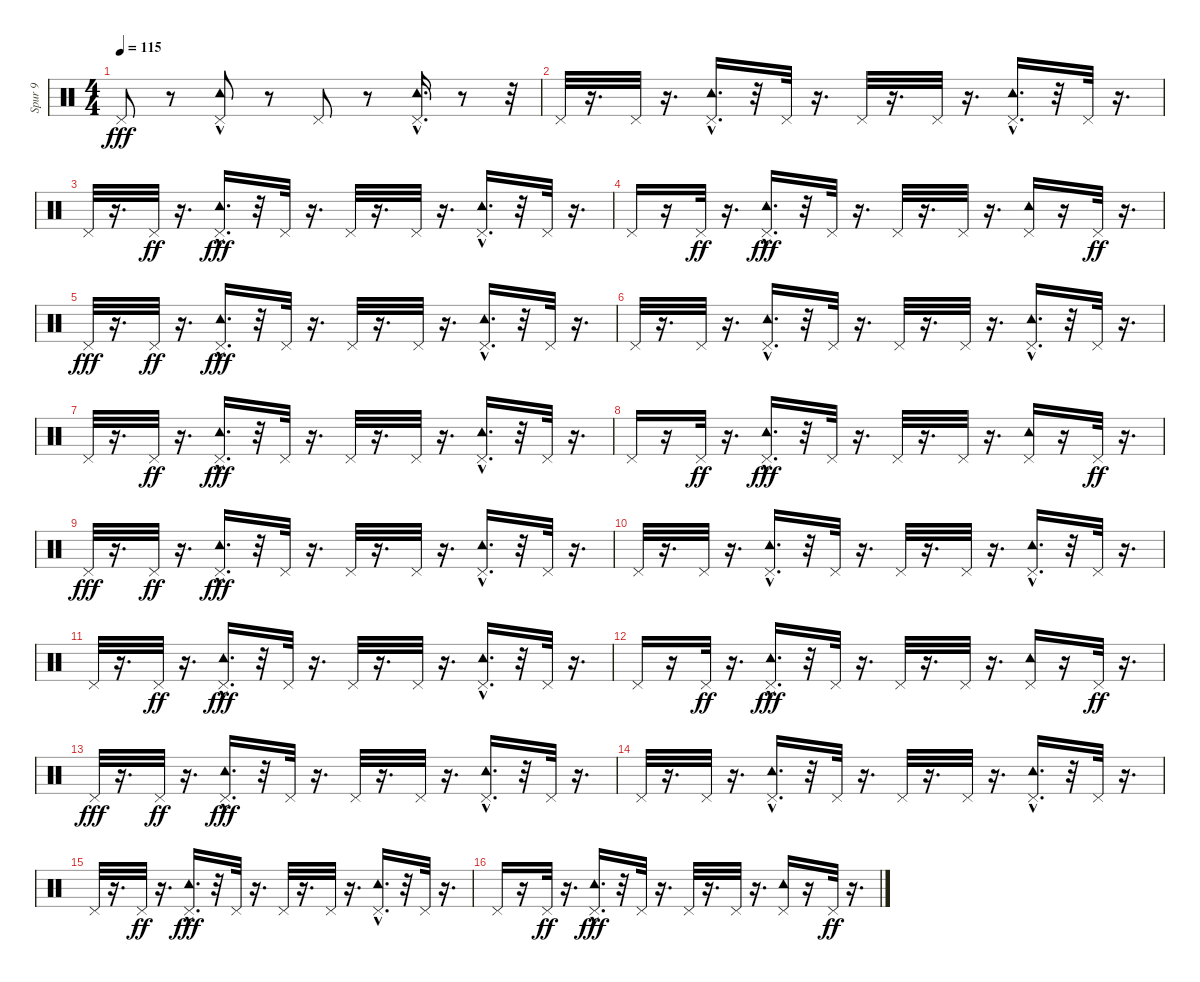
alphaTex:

\track ("Spur 9" "Spur 9") {instrument percussion}
\staff {score}
\articulation defaults
\ts (4 4)
\tempo 115
\clef neutral
\ks c "Pedal Hi-Hat (hit)".8{dy fff}
r.8 ("Pedal Hi-Hat (hit)" "Tambourine (hit)"{hac}).8 r.8 "Pedal Hi-Hat (hit)".8 r.8 ("Pedal Hi-Hat (hit)" "Tambourine (hit)"{hac}).16{d} r.8 r.32 |
"Pedal Hi-Hat (hit)".32 r.16{d} "Pedal Hi-Hat (hit)".32 r.16{d} ("Pedal Hi-Hat (hit)" "Tambourine (hit)"{hac}).16{d} r.32 "Pedal Hi-Hat (hit)".32 r.16{d} "Pedal Hi-Hat (hit)".32 r.16{d} "Pedal Hi-Hat (hit)".32 r.16{d} ("Pedal Hi-Hat (hit)" "Tambourine (hit)"{hac}).16{d} r.32 "Pedal Hi-Hat (hit)".32 r.16{d} |
"Pedal Hi-Hat (hit)".32 r.16{d} "Pedal Hi-Hat (hit)".32{dy ff} r.16{d} ("Tambourine (hit)"{hac} "Pedal Hi-Hat (hit)").16{d dy fff} r.32 "Pedal Hi-Hat (hit)".32 r.16{d} "Pedal Hi-Hat (hit)".32 r.16{d} "Pedal Hi-Hat (hit)".32 r.16{d} ("Pedal Hi-Hat (hit)" "Tambourine (hit)"{hac}).16{d} r.32 "Pedal Hi-Hat (hit)".32 r.16{d} |
"Pedal Hi-Hat (hit)".16 r.16 "Pedal Hi-Hat (hit)".32{dy ff} r.16{d} ("Tambourine (hit)"{hac} "Pedal Hi-Hat (hit)").16{d dy fff} r.32 "Pedal Hi-Hat (hit)".32 r.16{d} "Pedal Hi-Hat (hit)".32 r.16{d} "Pedal Hi-Hat (hit)".32 r.16{d} ("Pedal Hi-Hat (hit)" "Tambourine (hit)").16 r.16 "Pedal Hi-Hat (hit)".32{dy ff} r.16{d} |
"Pedal Hi-Hat (hit)".32{dy fff} r.16{d} "Pedal Hi-Hat (hit)".32{dy ff} r.16{d} ("Tambourine (hit)"{hac} "Pedal Hi-Hat (hit)").16{d dy fff} r.32 "Pedal Hi-Hat (hit)".32 r.16{d} "Pedal Hi-Hat (hit)".32 r.16{d} "Pedal Hi-Hat (hit)".32 r.16{d} ("Pedal Hi-Hat (hit)" "Tambourine (hit)"{hac}).16{d} r.32 "Pedal Hi-Hat (hit)".32 r.16{d} |
"Pedal Hi-Hat (hit)".32 r.16{d} "Pedal Hi-Hat (hit)".32 r.16{d} ("Pedal Hi-Hat (hit)" "Tambourine (hit)"{hac}).16{d} r.32 "Pedal Hi-Hat (hit)".32 r.16{d} "Pedal Hi-Hat (hit)".32 r.16{d} "Pedal Hi-Hat (hit)".32 r.16{d} ("Pedal Hi-Hat (hit)" "Tambourine (hit)"{hac}).16{d} r.32 "Pedal Hi-Hat (hit)".32 r.16{d} |
"Pedal Hi-Hat (hit)".32 r.16{d} "Pedal Hi-Hat (hit)".32{dy ff} r.16{d} ("Tambourine (hit)"{hac} "Pedal Hi-Hat (hit)").16{d dy fff} r.32 "Pedal Hi-Hat (hit)".32 r.16{d} "Pedal Hi-Hat (hit)".32 r.16{d} "Pedal Hi-Hat (hit)".32 r.16{d} ("Pedal Hi-Hat (hit)" "Tambourine (hit)"{hac}).16{d} r.32 "Pedal Hi-Hat (hit)".32 r.16{d} |
"Pedal Hi-Hat (hit)".16 r.16 "Pedal Hi-Hat (hit)".32{dy ff} r.16{d} ("Tambourine (hit)"{hac} "Pedal Hi-Hat (hit)").16{d dy fff} r.32 "Pedal Hi-Hat (hit)".32 r.16{d} "Pedal Hi-Hat (hit)".32 r.16{d} "Pedal Hi-Hat (hit)".32 r.16{d} ("Pedal Hi-Hat (hit)" "Tambourine (hit)").16 r.16 "Pedal Hi-Hat (hit)".32{dy ff} r.16{d} |
"Pedal Hi-Hat (hit)".32{dy fff} r.16{d} "Pedal Hi-Hat (hit)".32{dy ff} r.16{d} ("Tambourine (hit)"{hac} "Pedal Hi-Hat (hit)").16{d dy fff} r.32 "Pedal Hi-Hat (hit)".32 r.16{d} "Pedal Hi-Hat (hit)".32 r.16{d} "Pedal Hi-Hat (hit)".32 r.16{d} ("Pedal Hi-Hat (hit)" "Tambourine (hit)"{hac}).16{d} r.32 "Pedal Hi-Hat (hit)".32 r.16{d} |
"Pedal Hi-Hat (hit)".32 r.16{d} "Pedal Hi-Hat (hit)".32 r.16{d} ("Pedal Hi-Hat (hit)" "Tambourine (hit)"{hac}).16{d} r.32 "Pedal Hi-Hat (hit)".32 r.16{d} "Pedal Hi-Hat (hit)".32 r.16{d} "Pedal Hi-Hat (hit)".32 r.16{d} ("Pedal Hi-Hat (hit)" "Tambourine (hit)"{hac}).16{d} r.32 "Pedal Hi-Hat (hit)".32 r.16{d} |
"Pedal Hi-Hat (hit)".32 r.16{d} "Pedal Hi-Hat (hit)".32{dy ff} r.16{d} ("Tambourine (hit)"{hac} "Pedal Hi-Hat (hit)").16{d dy fff} r.32 "Pedal Hi-Hat (hit)".32 r.16{d} "Pedal Hi-Hat (hit)".32 r.16{d} "Pedal Hi-Hat (hit)".32 r.16{d} ("Pedal Hi-Hat (hit)" "Tambourine (hit)"{hac}).16{d} r.32 "Pedal Hi-Hat (hit)".32 r.16{d} |
"Pedal Hi-Hat (hit)".16 r.16 "Pedal Hi-Hat (hit)".32{dy ff} r.16{d} ("Tambourine (hit)"{hac} "Pedal Hi-Hat (hit)").16{d dy fff} r.32 "Pedal Hi-Hat (hit)".32 r.16{d} "Pedal Hi-Hat (hit)".32 r.16{d} "Pedal Hi-Hat (hit)".32 r.16{d} ("Pedal Hi-Hat (hit)" "Tambourine (hit)").16 r.16 "Pedal Hi-Hat (hit)".32{dy ff} r.16{d} |
"Pedal Hi-Hat (hit)".32{dy fff} r.16{d} "Pedal Hi-Hat (hit)".32{dy ff} r.16{d} ("Tambourine (hit)"{hac} "Pedal Hi-Hat (hit)").16{d dy fff} r.32 "Pedal Hi-Hat (hit)".32 r.16{d} "Pedal Hi-Hat (hit)".32 r.16{d} "Pedal Hi-Hat (hit)".32 r.16{d} ("Pedal Hi-Hat (hit)" "Tambourine (hit)"{hac}).16{d} r.32 "Pedal Hi-Hat (hit)".32 r.16{d} |
"Pedal Hi-Hat (hit)".32 r.16{d} "Pedal Hi-Hat (hit)".32 r.16{d} ("Pedal Hi-Hat (hit)" "Tambourine (hit)"{hac}).16{d} r.32 "Pedal Hi-Hat (hit)".32 r.16{d} "Pedal Hi-Hat (hit)".32 r.16{d} "Pedal Hi-Hat (hit)".32 r.16{d} ("Pedal Hi-Hat (hit)" "Tambourine (hit)"{hac}).16{d} r.32 "Pedal Hi-Hat (hit)".32 r.16{d} |
"Pedal Hi-Hat (hit)".32 r.16{d} "Pedal Hi-Hat (hit)".32{dy ff} r.16{d} ("Tambourine (hit)"{hac} "Pedal Hi-Hat (hit)").16{d dy fff} r.32 "Pedal Hi-Hat (hit)".32 r.16{d} "Pedal Hi-Hat (hit)".32 r.16{d} "Pedal Hi-Hat (hit)".32 r.16{d} ("Pedal Hi-Hat (hit)" "Tambourine (hit)"{hac}).16{d} r.32 "Pedal Hi-Hat (hit)".32 r.16{d} |
"Pedal Hi-Hat (hit)".16 r.16 "Pedal Hi-Hat (hit)".32{dy ff} r.16{d} ("Tambourine (hit)"{hac} "Pedal Hi-Hat (hit)").16{d dy fff} r.32 "Pedal Hi-Hat (hit)".32 r.16{d} "Pedal Hi-Hat (hit)".32 r.16{d} "Pedal Hi-Hat (hit)".32 r.16{d} ("Pedal Hi-Hat (hit)" "Tambourine (hit)").16 r.16 "Pedal Hi-Hat (hit)".32{dy ff} r.16{d}
